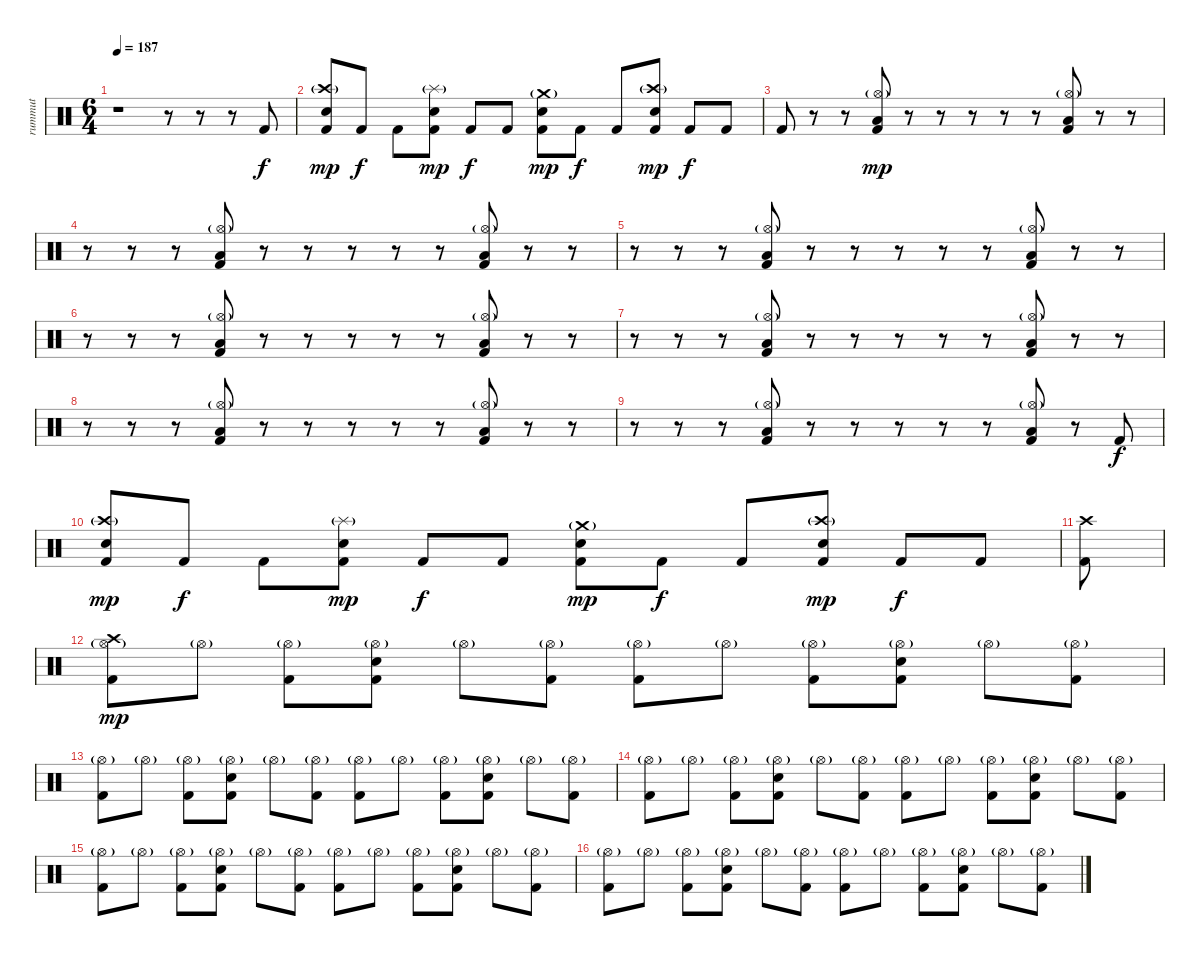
\track ("rummut" "rummut") {instrument percussion}
\staff {score}
\articulation defaults
\ts (6 4)
\tempo 187
\clef neutral
\ks c
r.1{dy f} r.8 r.8 r.8 "Kick (hit) 2".8 |
("Kick (hit) 2" "Crash high (hit)"{g} "Snare (hit) 2").8{dy mp} "Kick (hit) 2".8{dy f} "Kick (hit) 2".8 ("Kick (hit) 2" "Snare (hit) 2" "Splash (hit)"{g}).8{dy mp} "Kick (hit) 2".8{dy f} "Kick (hit) 2".8 ("Kick (hit) 2" "Snare (hit) 2" "Crash medium (hit)"{g}).8{dy mp} "Kick (hit) 2".8{dy f} "Kick (hit) 2".8 ("Kick (hit) 2" "Snare (hit) 2" "Crash high (hit)"{g}).8{dy mp} "Kick (hit) 2".8{dy f} "Kick (hit) 2".8 |
"Kick (hit) 2".8 r.8 r.8 ("Kick (hit) 2" "Hi-Hat (open)"{g} "Low Tom (hit)").8{dy mp} r.8 r.8 r.8 r.8 r.8 ("Kick (hit) 2" "Hi-Hat (open)"{g} "Low Tom (hit)").8 r.8 r.8 |
r.8 r.8 r.8 ("Kick (hit) 2" "Hi-Hat (open)"{g} "Low Tom (hit)").8 r.8 r.8 r.8 r.8 r.8 ("Kick (hit) 2" "Hi-Hat (open)"{g} "Low Tom (hit)").8 r.8 r.8 |
r.8 r.8 r.8 ("Kick (hit) 2" "Hi-Hat (open)"{g} "Low Tom (hit)").8 r.8 r.8 r.8 r.8 r.8 ("Kick (hit) 2" "Hi-Hat (open)"{g} "Low Tom (hit)").8 r.8 r.8 |
r.8 r.8 r.8 ("Kick (hit) 2" "Hi-Hat (open)"{g} "Low Tom (hit)").8 r.8 r.8 r.8 r.8 r.8 ("Kick (hit) 2" "Hi-Hat (open)"{g} "Low Tom (hit)").8 r.8 r.8 |
r.8 r.8 r.8 ("Kick (hit) 2" "Hi-Hat (open)"{g} "Low Tom (hit)").8 r.8 r.8 r.8 r.8 r.8 ("Kick (hit) 2" "Hi-Hat (open)"{g} "Low Tom (hit)").8 r.8 r.8 |
r.8 r.8 r.8 ("Kick (hit) 2" "Hi-Hat (open)"{g} "Low Tom (hit)").8 r.8 r.8 r.8 r.8 r.8 ("Kick (hit) 2" "Hi-Hat (open)"{g} "Low Tom (hit)").8 r.8 r.8 |
r.8 r.8 r.8 ("Kick (hit) 2" "Hi-Hat (open)"{g} "Low Tom (hit)").8 r.8 r.8 r.8 r.8 r.8 ("Kick (hit) 2" "Hi-Hat (open)"{g} "Low Tom (hit)").8 r.8 "Kick (hit) 2".8{dy f} |
("Kick (hit) 2" "Crash high (hit)"{g} "Snare (hit) 2").8{dy mp} "Kick (hit) 2".8{dy f} "Kick (hit) 2".8 ("Kick (hit) 2" "Snare (hit) 2" "Splash (hit)"{g}).8{dy mp} "Kick (hit) 2".8{dy f} "Kick (hit) 2".8 ("Kick (hit) 2" "Snare (hit) 2" "Crash medium (hit)"{g}).8{dy mp} "Kick (hit) 2".8{dy f} "Kick (hit) 2".8 ("Kick (hit) 2" "Snare (hit) 2" "Crash high (hit)"{g}).8{dy mp} "Kick (hit) 2".8{dy f} "Kick (hit) 2".8 |
("Kick (hit) 2" "Crash high (hit)").8 |
("Kick (hit) 2" "Hi-Hat (open)"{g} "Crash high (hit)").8{dy mp} "Hi-Hat (open)"{g}.8 ("Kick (hit) 2" "Hi-Hat (open)"{g}).8 ("Kick (hit) 2" "Hi-Hat (open)"{g} "Snare (hit) 2").8 "Hi-Hat (open)"{g}.8 ("Kick (hit) 2" "Hi-Hat (open)"{g}).8 ("Kick (hit) 2" "Hi-Hat (open)"{g}).8 "Hi-Hat (open)"{g}.8 ("Kick (hit) 2" "Hi-Hat (open)"{g}).8 ("Kick (hit) 2" "Hi-Hat (open)"{g} "Snare (hit) 2").8 "Hi-Hat (open)"{g}.8 ("Kick (hit) 2" "Hi-Hat (open)"{g}).8 |
("Kick (hit) 2" "Hi-Hat (open)"{g}).8 "Hi-Hat (open)"{g}.8 ("Kick (hit) 2" "Hi-Hat (open)"{g}).8 ("Kick (hit) 2" "Hi-Hat (open)"{g} "Snare (hit) 2").8 "Hi-Hat (open)"{g}.8 ("Kick (hit) 2" "Hi-Hat (open)"{g}).8 ("Kick (hit) 2" "Hi-Hat (open)"{g}).8 "Hi-Hat (open)"{g}.8 ("Kick (hit) 2" "Hi-Hat (open)"{g}).8 ("Kick (hit) 2" "Hi-Hat (open)"{g} "Snare (hit) 2").8 "Hi-Hat (open)"{g}.8 ("Kick (hit) 2" "Hi-Hat (open)"{g}).8 |
("Kick (hit) 2" "Hi-Hat (open)"{g}).8 "Hi-Hat (open)"{g}.8 ("Kick (hit) 2" "Hi-Hat (open)"{g}).8 ("Kick (hit) 2" "Hi-Hat (open)"{g} "Snare (hit) 2").8 "Hi-Hat (open)"{g}.8 ("Kick (hit) 2" "Hi-Hat (open)"{g}).8 ("Kick (hit) 2" "Hi-Hat (open)"{g}).8 "Hi-Hat (open)"{g}.8 ("Kick (hit) 2" "Hi-Hat (open)"{g}).8 ("Kick (hit) 2" "Hi-Hat (open)"{g} "Snare (hit) 2").8 "Hi-Hat (open)"{g}.8 ("Kick (hit) 2" "Hi-Hat (open)"{g}).8 |
("Kick (hit) 2" "Hi-Hat (open)"{g}).8 "Hi-Hat (open)"{g}.8 ("Kick (hit) 2" "Hi-Hat (open)"{g}).8 ("Kick (hit) 2" "Hi-Hat (open)"{g} "Snare (hit) 2").8 "Hi-Hat (open)"{g}.8 ("Kick (hit) 2" "Hi-Hat (open)"{g}).8 ("Kick (hit) 2" "Hi-Hat (open)"{g}).8 "Hi-Hat (open)"{g}.8 ("Kick (hit) 2" "Hi-Hat (open)"{g}).8 ("Kick (hit) 2" "Hi-Hat (open)"{g} "Snare (hit) 2").8 "Hi-Hat (open)"{g}.8 ("Kick (hit) 2" "Hi-Hat (open)"{g}).8 |
("Kick (hit) 2" "Hi-Hat (open)"{g}).8 "Hi-Hat (open)"{g}.8 ("Kick (hit) 2" "Hi-Hat (open)"{g}).8 ("Kick (hit) 2" "Hi-Hat (open)"{g} "Snare (hit) 2").8 "Hi-Hat (open)"{g}.8 ("Kick (hit) 2" "Hi-Hat (open)"{g}).8 ("Kick (hit) 2" "Hi-Hat (open)"{g}).8 "Hi-Hat (open)"{g}.8 ("Kick (hit) 2" "Hi-Hat (open)"{g}).8 ("Kick (hit) 2" "Hi-Hat (open)"{g} "Snare (hit) 2").8 "Hi-Hat (open)"{g}.8 ("Kick (hit) 2" "Hi-Hat (open)"{g}).8
